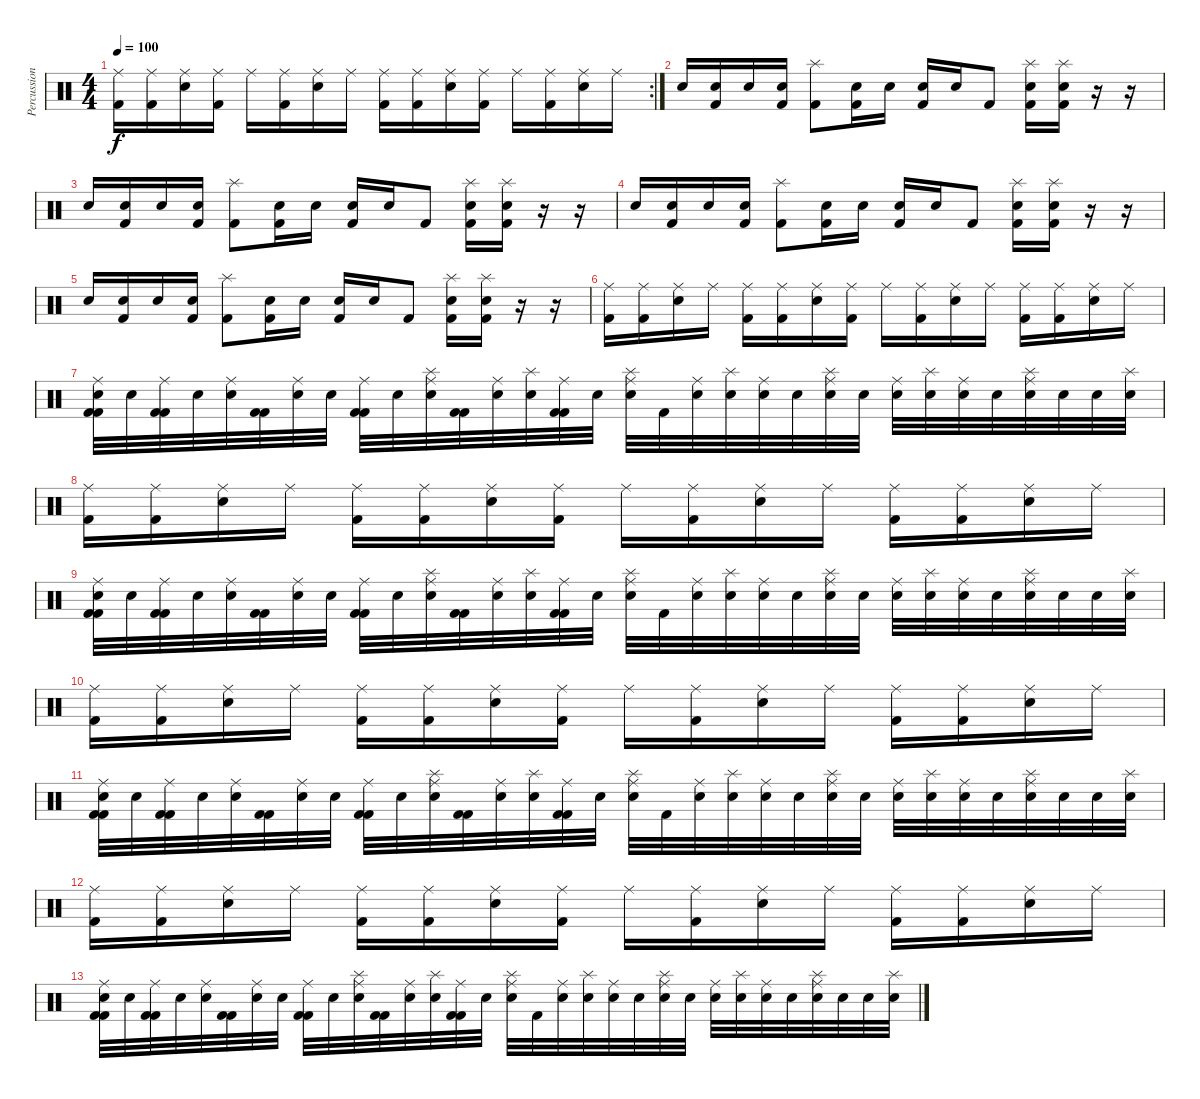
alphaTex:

\track ("Percussions" "Percussion") {instrument percussion}
\staff {score}
\articulation defaults
\rc 2
\ts (4 4)
\tempo 100
\clef neutral
\ks c
("Ride (middle)" "Kick (hit) 2").16{dy f} ("Ride (middle)" "Kick (hit) 2").16 ("Ride (middle)" "Snare (hit) 2").16 ("Ride (middle)" "Kick (hit) 2").16 "Ride (middle)".16 ("Ride (middle)" "Kick (hit) 2").16 ("Ride (middle)" "Snare (hit) 2").16 "Ride (middle)".16 ("Ride (middle)" "Kick (hit) 2").16 ("Ride (middle)" "Kick (hit) 2").16 ("Ride (middle)" "Snare (hit) 2").16 ("Ride (middle)" "Kick (hit) 2").16 "Ride (middle)".16 ("Ride (middle)" "Kick (hit) 2").16 ("Ride (middle)" "Snare (hit) 2").16 "Ride (middle)".16 |
"Electric Snare (hit)".16 ("Kick (hit) 2" "Electric Snare (hit)").16 "Electric Snare (hit)".16 ("Kick (hit) 2" "Electric Snare (hit)").16 ("Splash (hit)" "Kick (hit) 2").8 ("Kick (hit) 2" "Electric Snare (hit)").16 "Electric Snare (hit)".16 ("Kick (hit) 2" "Electric Snare (hit)").16 "Electric Snare (hit)".16 "Kick (hit) 2".8 ("Splash (hit)" "Kick (hit) 2" "Electric Snare (hit)").16 ("Splash (hit)" "Kick (hit) 2" "Electric Snare (hit)").16 r.16 r.16 |
"Electric Snare (hit)".16 ("Kick (hit) 2" "Electric Snare (hit)").16 "Electric Snare (hit)".16 ("Kick (hit) 2" "Electric Snare (hit)").16 ("Splash (hit)" "Kick (hit) 2").8 ("Kick (hit) 2" "Electric Snare (hit)").16 "Electric Snare (hit)".16 ("Kick (hit) 2" "Electric Snare (hit)").16 "Electric Snare (hit)".16 "Kick (hit) 2".8 ("Splash (hit)" "Kick (hit) 2" "Electric Snare (hit)").16 ("Splash (hit)" "Kick (hit) 2" "Electric Snare (hit)").16 r.16 r.16 |
"Electric Snare (hit)".16 ("Kick (hit) 2" "Electric Snare (hit)").16 "Electric Snare (hit)".16 ("Kick (hit) 2" "Electric Snare (hit)").16 ("Splash (hit)" "Kick (hit) 2").8 ("Kick (hit) 2" "Electric Snare (hit)").16 "Electric Snare (hit)".16 ("Kick (hit) 2" "Electric Snare (hit)").16 "Electric Snare (hit)".16 "Kick (hit) 2".8 ("Splash (hit)" "Kick (hit) 2" "Electric Snare (hit)").16 ("Splash (hit)" "Kick (hit) 2" "Electric Snare (hit)").16 r.16 r.16 |
"Electric Snare (hit)".16 ("Kick (hit) 2" "Electric Snare (hit)").16 "Electric Snare (hit)".16 ("Kick (hit) 2" "Electric Snare (hit)").16 ("Splash (hit)" "Kick (hit) 2").8 ("Kick (hit) 2" "Electric Snare (hit)").16 "Electric Snare (hit)".16 ("Kick (hit) 2" "Electric Snare (hit)").16 "Electric Snare (hit)".16 "Kick (hit) 2".8 ("Splash (hit)" "Kick (hit) 2" "Electric Snare (hit)").16 ("Splash (hit)" "Kick (hit) 2" "Electric Snare (hit)").16 r.16 r.16 |
("Ride (middle)" "Kick (hit) 2").16 ("Ride (middle)" "Kick (hit) 2").16 ("Ride (middle)" "Electric Snare (hit)").16 "Ride (middle)".16 ("Ride (middle)" "Kick (hit) 2").16 ("Ride (middle)" "Kick (hit) 2").16 ("Ride (middle)" "Electric Snare (hit)").16 ("Ride (middle)" "Kick (hit) 2").16 "Ride (middle)".16 ("Ride (middle)" "Kick (hit) 2").16 ("Ride (middle)" "Electric Snare (hit)").16 "Ride (middle)".16 ("Ride (middle)" "Kick (hit) 2").16 ("Ride (middle)" "Kick (hit) 2").16 ("Ride (middle)" "Electric Snare (hit)").16 "Ride (middle)".16 |
("Ride (middle)" "Kick (hit) 2" "Kick (hit) 2" "Electric Snare (hit)").32 "Electric Snare (hit)".32 ("Ride (middle)" "Kick (hit) 2" "Kick (hit) 2").32 "Electric Snare (hit)".32 ("Ride (middle)" "Electric Snare (hit)").32 ("Kick (hit) 2" "Kick (hit) 2").32 ("Ride (middle)" "Electric Snare (hit)").32 "Electric Snare (hit)".32 ("Ride (middle)" "Kick (hit) 2" "Kick (hit) 2").32 "Electric Snare (hit)".32 ("Ride (middle)" "Splash (hit)" "Electric Snare (hit)").32 ("Kick (hit) 2" "Kick (hit) 2").32 ("Ride (middle)" "Electric Snare (hit)").32 ("Splash (hit)" "Electric Snare (hit)").32 ("Ride (middle)" "Kick (hit) 2" "Kick (hit) 2").32 "Electric Snare (hit)".32 ("Ride (middle)" "Splash (hit)" "Electric Snare (hit)").32 "Kick (hit) 2".32 ("Ride (middle)" "Electric Snare (hit)").32 ("Splash (hit)" "Electric Snare (hit)").32 ("Ride (middle)" "Electric Snare (hit)").32 "Electric Snare (hit)".32 ("Ride (middle)" "Splash (hit)" "Electric Snare (hit)").32 "Electric Snare (hit)".32 ("Ride (middle)" "Electric Snare (hit)").32 ("Splash (hit)" "Electric Snare (hit)").32 ("Ride (middle)" "Electric Snare (hit)").32 "Electric Snare (hit)".32 ("Ride (middle)" "Splash (hit)" "Electric Snare (hit)").32 "Electric Snare (hit)".32 "Electric Snare (hit)".32 ("Splash (hit)" "Electric Snare (hit)").32 |
("Ride (middle)" "Kick (hit) 2").16 ("Ride (middle)" "Kick (hit) 2").16 ("Ride (middle)" "Electric Snare (hit)").16 "Ride (middle)".16 ("Ride (middle)" "Kick (hit) 2").16 ("Ride (middle)" "Kick (hit) 2").16 ("Ride (middle)" "Electric Snare (hit)").16 ("Ride (middle)" "Kick (hit) 2").16 "Ride (middle)".16 ("Ride (middle)" "Kick (hit) 2").16 ("Ride (middle)" "Electric Snare (hit)").16 "Ride (middle)".16 ("Ride (middle)" "Kick (hit) 2").16 ("Ride (middle)" "Kick (hit) 2").16 ("Ride (middle)" "Electric Snare (hit)").16 "Ride (middle)".16 |
("Ride (middle)" "Kick (hit) 2" "Kick (hit) 2" "Electric Snare (hit)").32 "Electric Snare (hit)".32 ("Ride (middle)" "Kick (hit) 2" "Kick (hit) 2").32 "Electric Snare (hit)".32 ("Ride (middle)" "Electric Snare (hit)").32 ("Kick (hit) 2" "Kick (hit) 2").32 ("Ride (middle)" "Electric Snare (hit)").32 "Electric Snare (hit)".32 ("Ride (middle)" "Kick (hit) 2" "Kick (hit) 2").32 "Electric Snare (hit)".32 ("Ride (middle)" "Splash (hit)" "Electric Snare (hit)").32 ("Kick (hit) 2" "Kick (hit) 2").32 ("Ride (middle)" "Electric Snare (hit)").32 ("Splash (hit)" "Electric Snare (hit)").32 ("Ride (middle)" "Kick (hit) 2" "Kick (hit) 2").32 "Electric Snare (hit)".32 ("Ride (middle)" "Splash (hit)" "Electric Snare (hit)").32 "Kick (hit) 2".32 ("Ride (middle)" "Electric Snare (hit)").32 ("Splash (hit)" "Electric Snare (hit)").32 ("Ride (middle)" "Electric Snare (hit)").32 "Electric Snare (hit)".32 ("Ride (middle)" "Splash (hit)" "Electric Snare (hit)").32 "Electric Snare (hit)".32 ("Ride (middle)" "Electric Snare (hit)").32 ("Splash (hit)" "Electric Snare (hit)").32 ("Ride (middle)" "Electric Snare (hit)").32 "Electric Snare (hit)".32 ("Ride (middle)" "Splash (hit)" "Electric Snare (hit)").32 "Electric Snare (hit)".32 "Electric Snare (hit)".32 ("Splash (hit)" "Electric Snare (hit)").32 |
("Ride (middle)" "Kick (hit) 2").16 ("Ride (middle)" "Kick (hit) 2").16 ("Ride (middle)" "Electric Snare (hit)").16 "Ride (middle)".16 ("Ride (middle)" "Kick (hit) 2").16 ("Ride (middle)" "Kick (hit) 2").16 ("Ride (middle)" "Electric Snare (hit)").16 ("Ride (middle)" "Kick (hit) 2").16 "Ride (middle)".16 ("Ride (middle)" "Kick (hit) 2").16 ("Ride (middle)" "Electric Snare (hit)").16 "Ride (middle)".16 ("Ride (middle)" "Kick (hit) 2").16 ("Ride (middle)" "Kick (hit) 2").16 ("Ride (middle)" "Electric Snare (hit)").16 "Ride (middle)".16 |
("Ride (middle)" "Kick (hit) 2" "Kick (hit) 2" "Electric Snare (hit)").32 "Electric Snare (hit)".32 ("Ride (middle)" "Kick (hit) 2" "Kick (hit) 2").32 "Electric Snare (hit)".32 ("Ride (middle)" "Electric Snare (hit)").32 ("Kick (hit) 2" "Kick (hit) 2").32 ("Ride (middle)" "Electric Snare (hit)").32 "Electric Snare (hit)".32 ("Ride (middle)" "Kick (hit) 2" "Kick (hit) 2").32 "Electric Snare (hit)".32 ("Ride (middle)" "Splash (hit)" "Electric Snare (hit)").32 ("Kick (hit) 2" "Kick (hit) 2").32 ("Ride (middle)" "Electric Snare (hit)").32 ("Splash (hit)" "Electric Snare (hit)").32 ("Ride (middle)" "Kick (hit) 2" "Kick (hit) 2").32 "Electric Snare (hit)".32 ("Ride (middle)" "Splash (hit)" "Electric Snare (hit)").32 "Kick (hit) 2".32 ("Ride (middle)" "Electric Snare (hit)").32 ("Splash (hit)" "Electric Snare (hit)").32 ("Ride (middle)" "Electric Snare (hit)").32 "Electric Snare (hit)".32 ("Ride (middle)" "Splash (hit)" "Electric Snare (hit)").32 "Electric Snare (hit)".32 ("Ride (middle)" "Electric Snare (hit)").32 ("Splash (hit)" "Electric Snare (hit)").32 ("Ride (middle)" "Electric Snare (hit)").32 "Electric Snare (hit)".32 ("Ride (middle)" "Splash (hit)" "Electric Snare (hit)").32 "Electric Snare (hit)".32 "Electric Snare (hit)".32 ("Splash (hit)" "Electric Snare (hit)").32 |
("Ride (middle)" "Kick (hit) 2").16 ("Ride (middle)" "Kick (hit) 2").16 ("Ride (middle)" "Electric Snare (hit)").16 "Ride (middle)".16 ("Ride (middle)" "Kick (hit) 2").16 ("Ride (middle)" "Kick (hit) 2").16 ("Ride (middle)" "Electric Snare (hit)").16 ("Ride (middle)" "Kick (hit) 2").16 "Ride (middle)".16 ("Ride (middle)" "Kick (hit) 2").16 ("Ride (middle)" "Electric Snare (hit)").16 "Ride (middle)".16 ("Ride (middle)" "Kick (hit) 2").16 ("Ride (middle)" "Kick (hit) 2").16 ("Ride (middle)" "Electric Snare (hit)").16 "Ride (middle)".16 |
("Ride (middle)" "Kick (hit) 2" "Kick (hit) 2" "Electric Snare (hit)").32 "Electric Snare (hit)".32 ("Ride (middle)" "Kick (hit) 2" "Kick (hit) 2").32 "Electric Snare (hit)".32 ("Ride (middle)" "Electric Snare (hit)").32 ("Kick (hit) 2" "Kick (hit) 2").32 ("Ride (middle)" "Electric Snare (hit)").32 "Electric Snare (hit)".32 ("Ride (middle)" "Kick (hit) 2" "Kick (hit) 2").32 "Electric Snare (hit)".32 ("Ride (middle)" "Splash (hit)" "Electric Snare (hit)").32 ("Kick (hit) 2" "Kick (hit) 2").32 ("Ride (middle)" "Electric Snare (hit)").32 ("Splash (hit)" "Electric Snare (hit)").32 ("Ride (middle)" "Kick (hit) 2" "Kick (hit) 2").32 "Electric Snare (hit)".32 ("Ride (middle)" "Splash (hit)" "Electric Snare (hit)").32 "Kick (hit) 2".32 ("Ride (middle)" "Electric Snare (hit)").32 ("Splash (hit)" "Electric Snare (hit)").32 ("Ride (middle)" "Electric Snare (hit)").32 "Electric Snare (hit)".32 ("Ride (middle)" "Splash (hit)" "Electric Snare (hit)").32 "Electric Snare (hit)".32 ("Ride (middle)" "Electric Snare (hit)").32 ("Splash (hit)" "Electric Snare (hit)").32 ("Ride (middle)" "Electric Snare (hit)").32 "Electric Snare (hit)".32 ("Ride (middle)" "Splash (hit)" "Electric Snare (hit)").32 "Electric Snare (hit)".32 "Electric Snare (hit)".32 ("Splash (hit)" "Electric Snare (hit)").32
